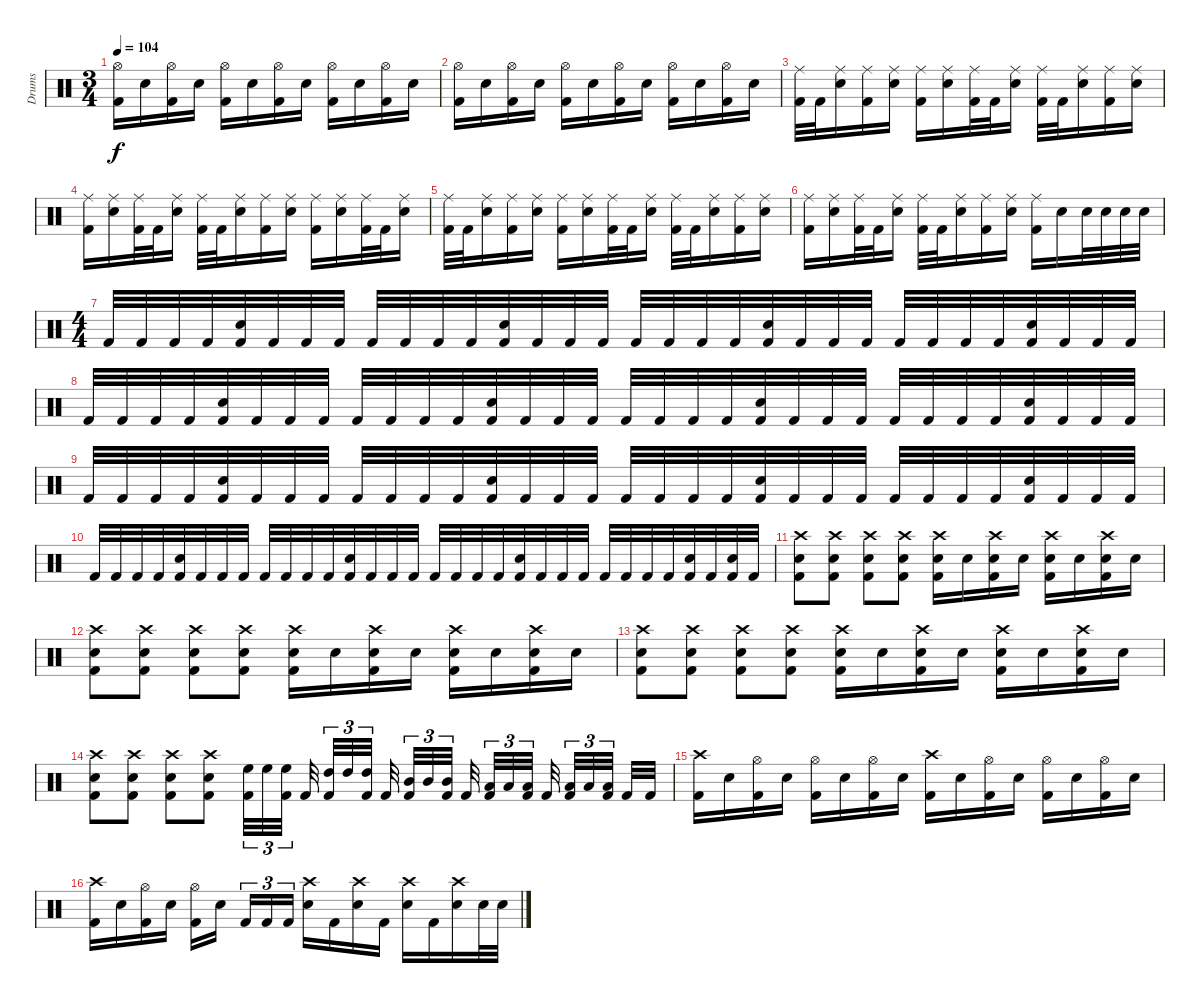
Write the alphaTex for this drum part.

\track ("Drums" "Drums") {instrument percussion}
\staff {score}
\articulation defaults
\ts (3 4)
\tempo 104
\clef neutral
\ks c
("Hi-Hat (open)" "Kick (hit) 2").16{dy f} "Snare (hit) 2".16 ("Hi-Hat (open)" "Kick (hit) 2").16 "Snare (hit) 2".16 ("Hi-Hat (open)" "Kick (hit) 2").16 "Snare (hit) 2".16 ("Hi-Hat (open)" "Kick (hit) 2").16 "Snare (hit) 2".16 ("Hi-Hat (open)" "Kick (hit) 2").16 "Snare (hit) 2".16 ("Hi-Hat (open)" "Kick (hit) 2").16 "Snare (hit) 2".16 |
("Hi-Hat (open)" "Kick (hit) 2").16 "Snare (hit) 2".16 ("Hi-Hat (open)" "Kick (hit) 2").16 "Snare (hit) 2".16 ("Hi-Hat (open)" "Kick (hit) 2").16 "Snare (hit) 2".16 ("Hi-Hat (open)" "Kick (hit) 2").16 "Snare (hit) 2".16 ("Hi-Hat (open)" "Kick (hit) 2").16 "Snare (hit) 2".16 ("Hi-Hat (open)" "Kick (hit) 2").16 "Snare (hit) 2".16 |
("Ride (middle)" "Kick (hit) 2").32 "Kick (hit) 2".32 ("Ride (middle)" "Snare (hit) 2").16 ("Ride (middle)" "Kick (hit) 2").16 ("Ride (middle)" "Snare (hit) 2").16 ("Ride (middle)" "Kick (hit) 2").16 ("Ride (middle)" "Snare (hit) 2").16 ("Ride (middle)" "Kick (hit) 2").32 "Kick (hit) 2".32 ("Ride (middle)" "Snare (hit) 2").16 ("Ride (middle)" "Kick (hit) 2").32 "Kick (hit) 2".32 ("Ride (middle)" "Snare (hit) 2").16 ("Ride (middle)" "Kick (hit) 2").16 ("Ride (middle)" "Snare (hit) 2").16 |
("Ride (middle)" "Kick (hit) 2").16 ("Ride (middle)" "Snare (hit) 2").16 ("Ride (middle)" "Kick (hit) 2").32 "Kick (hit) 2".32 ("Ride (middle)" "Snare (hit) 2").16 ("Ride (middle)" "Kick (hit) 2").32 "Kick (hit) 2".32 ("Ride (middle)" "Snare (hit) 2").16 ("Ride (middle)" "Kick (hit) 2").16 ("Ride (middle)" "Snare (hit) 2").16 ("Ride (middle)" "Kick (hit) 2").16 ("Ride (middle)" "Snare (hit) 2").16 ("Ride (middle)" "Kick (hit) 2").32 "Kick (hit) 2".32 ("Ride (middle)" "Snare (hit) 2").16 |
("Ride (middle)" "Kick (hit) 2").32 "Kick (hit) 2".32 ("Ride (middle)" "Snare (hit) 2").16 ("Ride (middle)" "Kick (hit) 2").16 ("Ride (middle)" "Snare (hit) 2").16 ("Ride (middle)" "Kick (hit) 2").16 ("Ride (middle)" "Snare (hit) 2").16 ("Ride (middle)" "Kick (hit) 2").32 "Kick (hit) 2".32 ("Ride (middle)" "Snare (hit) 2").16 ("Ride (middle)" "Kick (hit) 2").32 "Kick (hit) 2".32 ("Ride (middle)" "Snare (hit) 2").16 ("Ride (middle)" "Kick (hit) 2").16 ("Ride (middle)" "Snare (hit) 2").16 |
("Ride (middle)" "Kick (hit) 2").16 ("Ride (middle)" "Snare (hit) 2").16 ("Ride (middle)" "Kick (hit) 2").32 "Kick (hit) 2".32 ("Ride (middle)" "Snare (hit) 2").16 ("Ride (middle)" "Kick (hit) 2").32 "Kick (hit) 2".32 ("Ride (middle)" "Snare (hit) 2").16 ("Ride (middle)" "Kick (hit) 2").16 ("Ride (middle)" "Snare (hit) 2").16 ("Ride (middle)" "Kick (hit) 2").16 "Snare (hit) 2".16 "Snare (hit) 2".32 "Snare (hit) 2".32 "Snare (hit) 2".32 "Snare (hit) 2".32 |
\ts (4 4)
"Kick (hit) 2".32 "Kick (hit) 2".32 "Kick (hit) 2".32 "Kick (hit) 2".32 ("Snare (hit) 2" "Kick (hit) 2").32 "Kick (hit) 2".32 "Kick (hit) 2".32 "Kick (hit) 2".32 "Kick (hit) 2".32 "Kick (hit) 2".32 "Kick (hit) 2".32 "Kick (hit) 2".32 ("Snare (hit) 2" "Kick (hit) 2").32 "Kick (hit) 2".32 "Kick (hit) 2".32 "Kick (hit) 2".32 "Kick (hit) 2".32 "Kick (hit) 2".32 "Kick (hit) 2".32 "Kick (hit) 2".32 ("Snare (hit) 2" "Kick (hit) 2").32 "Kick (hit) 2".32 "Kick (hit) 2".32 "Kick (hit) 2".32 "Kick (hit) 2".32 "Kick (hit) 2".32 "Kick (hit) 2".32 "Kick (hit) 2".32 ("Snare (hit) 2" "Kick (hit) 2").32 "Kick (hit) 2".32 "Kick (hit) 2".32 "Kick (hit) 2".32 |
"Kick (hit) 2".32 "Kick (hit) 2".32 "Kick (hit) 2".32 "Kick (hit) 2".32 ("Snare (hit) 2" "Kick (hit) 2").32 "Kick (hit) 2".32 "Kick (hit) 2".32 "Kick (hit) 2".32 "Kick (hit) 2".32 "Kick (hit) 2".32 "Kick (hit) 2".32 "Kick (hit) 2".32 ("Snare (hit) 2" "Kick (hit) 2").32 "Kick (hit) 2".32 "Kick (hit) 2".32 "Kick (hit) 2".32 "Kick (hit) 2".32 "Kick (hit) 2".32 "Kick (hit) 2".32 "Kick (hit) 2".32 ("Snare (hit) 2" "Kick (hit) 2").32 "Kick (hit) 2".32 "Kick (hit) 2".32 "Kick (hit) 2".32 "Kick (hit) 2".32 "Kick (hit) 2".32 "Kick (hit) 2".32 "Kick (hit) 2".32 ("Snare (hit) 2" "Kick (hit) 2").32 "Kick (hit) 2".32 "Kick (hit) 2".32 "Kick (hit) 2".32 |
"Kick (hit) 2".32 "Kick (hit) 2".32 "Kick (hit) 2".32 "Kick (hit) 2".32 ("Snare (hit) 2" "Kick (hit) 2").32 "Kick (hit) 2".32 "Kick (hit) 2".32 "Kick (hit) 2".32 "Kick (hit) 2".32 "Kick (hit) 2".32 "Kick (hit) 2".32 "Kick (hit) 2".32 ("Snare (hit) 2" "Kick (hit) 2").32 "Kick (hit) 2".32 "Kick (hit) 2".32 "Kick (hit) 2".32 "Kick (hit) 2".32 "Kick (hit) 2".32 "Kick (hit) 2".32 "Kick (hit) 2".32 ("Snare (hit) 2" "Kick (hit) 2").32 "Kick (hit) 2".32 "Kick (hit) 2".32 "Kick (hit) 2".32 "Kick (hit) 2".32 "Kick (hit) 2".32 "Kick (hit) 2".32 "Kick (hit) 2".32 ("Snare (hit) 2" "Kick (hit) 2").32 "Kick (hit) 2".32 "Kick (hit) 2".32 "Kick (hit) 2".32 |
"Kick (hit) 2".32 "Kick (hit) 2".32 "Kick (hit) 2".32 "Kick (hit) 2".32 ("Snare (hit) 2" "Kick (hit) 2").32 "Kick (hit) 2".32 "Kick (hit) 2".32 "Kick (hit) 2".32 "Kick (hit) 2".32 "Kick (hit) 2".32 "Kick (hit) 2".32 "Kick (hit) 2".32 ("Snare (hit) 2" "Kick (hit) 2").32 "Kick (hit) 2".32 "Kick (hit) 2".32 "Kick (hit) 2".32 "Kick (hit) 2".32 "Kick (hit) 2".32 "Kick (hit) 2".32 "Kick (hit) 2".32 ("Snare (hit) 2" "Kick (hit) 2").32 "Kick (hit) 2".32 "Kick (hit) 2".32 "Kick (hit) 2".32 "Kick (hit) 2".32 "Kick (hit) 2".32 "Kick (hit) 2".32 "Kick (hit) 2".32 ("Snare (hit) 2" "Kick (hit) 2").32 "Kick (hit) 2".32 ("Snare (hit) 2" "Kick (hit) 2").32 "Kick (hit) 2".32 |
("Crash high (hit)" "Snare (hit) 2" "Kick (hit) 2").8 ("Crash high (hit)" "Snare (hit) 2" "Kick (hit) 2").8 ("Crash high (hit)" "Snare (hit) 2" "Kick (hit) 2").8 ("Crash high (hit)" "Snare (hit) 2" "Kick (hit) 2").8 ("Crash high (hit)" "Snare (hit) 2" "Kick (hit) 2").16 "Snare (hit) 2".16 ("Crash high (hit)" "Snare (hit) 2" "Kick (hit) 2").16 "Snare (hit) 2".16 ("Crash high (hit)" "Snare (hit) 2" "Kick (hit) 2").16 "Snare (hit) 2".16 ("Crash high (hit)" "Snare (hit) 2" "Kick (hit) 2").16 "Snare (hit) 2".16 |
("Crash high (hit)" "Snare (hit) 2" "Kick (hit) 2").8 ("Crash high (hit)" "Snare (hit) 2" "Kick (hit) 2").8 ("Crash high (hit)" "Snare (hit) 2" "Kick (hit) 2").8 ("Crash high (hit)" "Snare (hit) 2" "Kick (hit) 2").8 ("Crash high (hit)" "Snare (hit) 2" "Kick (hit) 2").16 "Snare (hit) 2".16 ("Crash high (hit)" "Snare (hit) 2" "Kick (hit) 2").16 "Snare (hit) 2".16 ("Crash high (hit)" "Snare (hit) 2" "Kick (hit) 2").16 "Snare (hit) 2".16 ("Crash high (hit)" "Snare (hit) 2" "Kick (hit) 2").16 "Snare (hit) 2".16 |
("Crash high (hit)" "Snare (hit) 2" "Kick (hit) 2").8 ("Crash high (hit)" "Snare (hit) 2" "Kick (hit) 2").8 ("Crash high (hit)" "Snare (hit) 2" "Kick (hit) 2").8 ("Crash high (hit)" "Snare (hit) 2" "Kick (hit) 2").8 ("Crash high (hit)" "Snare (hit) 2" "Kick (hit) 2").16 "Snare (hit) 2".16 ("Crash high (hit)" "Snare (hit) 2" "Kick (hit) 2").16 "Snare (hit) 2".16 ("Crash high (hit)" "Snare (hit) 2" "Kick (hit) 2").16 "Snare (hit) 2".16 ("Crash high (hit)" "Snare (hit) 2" "Kick (hit) 2").16 "Snare (hit) 2".16 |
("Crash high (hit)" "Snare (hit) 2" "Kick (hit) 2").8 ("Crash high (hit)" "Snare (hit) 2" "Kick (hit) 2").8 ("Crash high (hit)" "Snare (hit) 2" "Kick (hit) 2").8 ("Crash high (hit)" "Snare (hit) 2" "Kick (hit) 2").8 ("High Floor Tom (hit)" "Kick (hit) 2").32{tu (3 2)} "High Floor Tom (hit)".32{tu (3 2)} ("High Floor Tom (hit)" "Kick (hit) 2").32{tu (3 2) beam splitsecondary} "Kick (hit) 2".32{beam splitsecondary} ("High Tom (hit)" "Kick (hit) 2").32{tu (3 2)} "High Tom (hit)".32{tu (3 2)} ("High Tom (hit)" "Kick (hit) 2").32{tu (3 2) beam splitsecondary} "Kick (hit) 2".32{beam splitsecondary} ("Mid Tom (hit)" "Kick (hit) 2").32{tu (3 2)} "Mid Tom (hit)".32{tu (3 2)} ("Mid Tom (hit)" "Kick (hit) 2").32{tu (3 2)} "Kick (hit) 2".32{beam splitsecondary} ("Low Tom (hit)" "Kick (hit) 2").32{tu (3 2)} "Low Tom (hit)".32{tu (3 2)} ("Low Tom (hit)" "Kick (hit) 2").32{tu (3 2) beam splitsecondary} "Kick (hit) 2".32{beam splitsecondary} ("Low Floor Tom (hit)" "Kick (hit) 2").32{tu (3 2)} "Low Floor Tom (hit)".32{tu (3 2)} ("Low Floor Tom (hit)" "Kick (hit) 2").32{tu (3 2) beam splitsecondary} "Kick (hit) 2".32 "Kick (hit) 2".32 |
("Crash high (hit)" "Kick (hit) 2").16 "Snare (hit) 2".16 ("Hi-Hat (open)" "Kick (hit) 2").16 "Snare (hit) 2".16 ("Hi-Hat (open)" "Kick (hit) 2").16 "Snare (hit) 2".16 ("Hi-Hat (open)" "Kick (hit) 2").16 "Snare (hit) 2".16 ("Crash high (hit)" "Kick (hit) 2").16 "Snare (hit) 2".16 ("Hi-Hat (open)" "Kick (hit) 2").16 "Snare (hit) 2".16 ("Hi-Hat (open)" "Kick (hit) 2").16 "Snare (hit) 2".16 ("Hi-Hat (open)" "Kick (hit) 2").16 "Snare (hit) 2".16 |
("Crash high (hit)" "Kick (hit) 2").16 "Snare (hit) 2".16 ("Hi-Hat (open)" "Kick (hit) 2").16 "Snare (hit) 2".16 ("Hi-Hat (open)" "Kick (hit) 2").16 "Snare (hit) 2".16{beam splitsecondary} "Kick (hit) 2".16{tu (3 2)} "Kick (hit) 2".16{tu (3 2)} "Kick (hit) 2".16{tu (3 2)} ("Crash high (hit)" "Snare (hit) 2").16 "Kick (hit) 2".16 ("Crash high (hit)" "Snare (hit) 2").16 "Kick (hit) 2".16 ("Crash high (hit)" "Snare (hit) 2").16 "Kick (hit) 2".16 ("Crash high (hit)" "Snare (hit) 2").16 "Snare (hit) 2".32 "Snare (hit) 2".32
